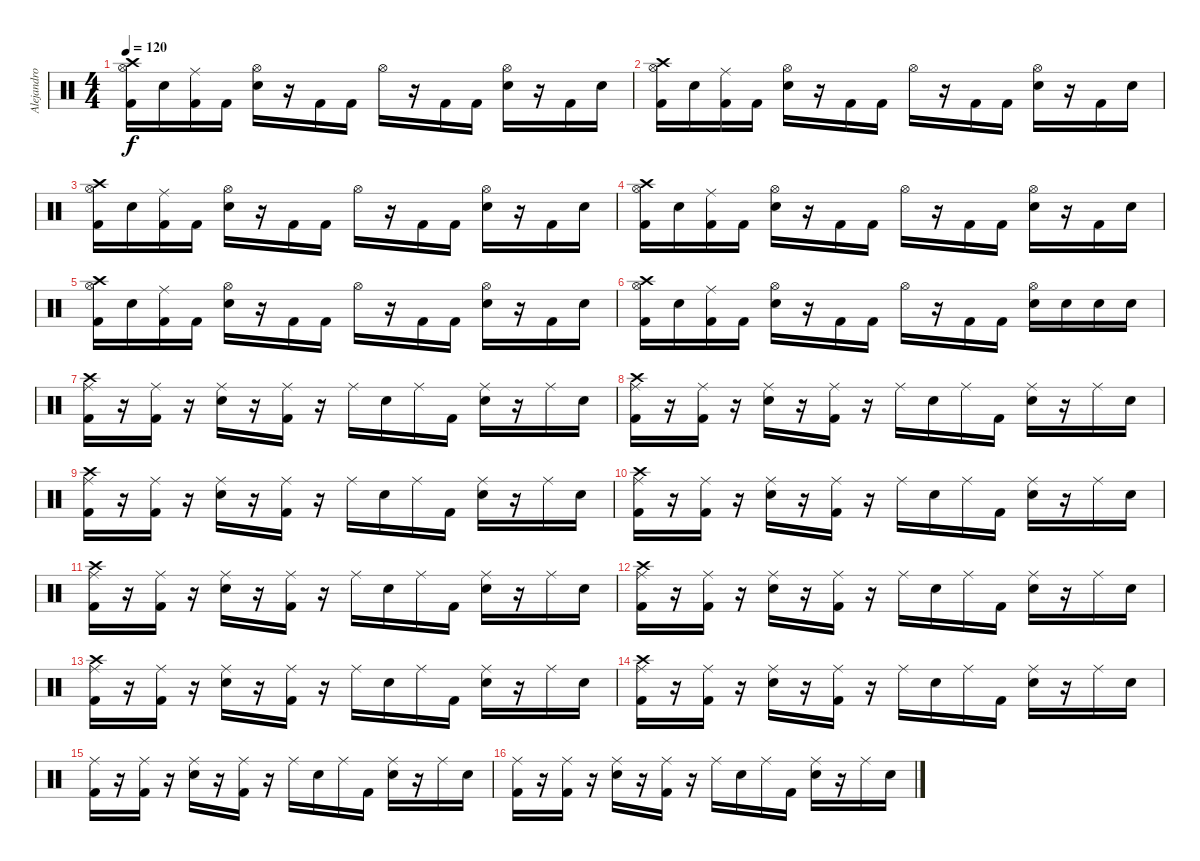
\track ("Alejandro" "Alejandro") {instrument percussion}
\staff {score}
\articulation defaults
\ts (4 4)
\tempo 120
\clef neutral
\ks c
("Crash high (hit)" "Hi-Hat (open)" "Kick (hit) 2").16{dy f} "Electric Snare (hit)".16 ("Ride (middle)" "Kick (hit) 2").16 "Kick (hit) 2".16 ("Hi-Hat (open)" "Electric Snare (hit)").16 r.16 "Kick (hit) 2".16 "Kick (hit) 2".16 "Hi-Hat (open)".16 r.16 "Kick (hit) 2".16 "Kick (hit) 2".16 ("Hi-Hat (open)" "Electric Snare (hit)").16 r.16 "Kick (hit) 2".16 "Electric Snare (hit)".16 |
("Crash high (hit)" "Hi-Hat (open)" "Kick (hit) 2").16 "Electric Snare (hit)".16 ("Ride (middle)" "Kick (hit) 2").16 "Kick (hit) 2".16 ("Hi-Hat (open)" "Electric Snare (hit)").16 r.16 "Kick (hit) 2".16 "Kick (hit) 2".16 "Hi-Hat (open)".16 r.16 "Kick (hit) 2".16 "Kick (hit) 2".16 ("Hi-Hat (open)" "Electric Snare (hit)").16 r.16 "Kick (hit) 2".16 "Electric Snare (hit)".16 |
("Crash high (hit)" "Hi-Hat (open)" "Kick (hit) 2").16 "Electric Snare (hit)".16 ("Ride (middle)" "Kick (hit) 2").16 "Kick (hit) 2".16 ("Hi-Hat (open)" "Electric Snare (hit)").16 r.16 "Kick (hit) 2".16 "Kick (hit) 2".16 "Hi-Hat (open)".16 r.16 "Kick (hit) 2".16 "Kick (hit) 2".16 ("Hi-Hat (open)" "Electric Snare (hit)").16 r.16 "Kick (hit) 2".16 "Electric Snare (hit)".16 |
("Crash high (hit)" "Hi-Hat (open)" "Kick (hit) 2").16 "Electric Snare (hit)".16 ("Ride (middle)" "Kick (hit) 2").16 "Kick (hit) 2".16 ("Hi-Hat (open)" "Electric Snare (hit)").16 r.16 "Kick (hit) 2".16 "Kick (hit) 2".16 "Hi-Hat (open)".16 r.16 "Kick (hit) 2".16 "Kick (hit) 2".16 ("Hi-Hat (open)" "Electric Snare (hit)").16 r.16 "Kick (hit) 2".16 "Electric Snare (hit)".16 |
("Crash high (hit)" "Hi-Hat (open)" "Kick (hit) 2").16 "Electric Snare (hit)".16 ("Ride (middle)" "Kick (hit) 2").16 "Kick (hit) 2".16 ("Hi-Hat (open)" "Electric Snare (hit)").16 r.16 "Kick (hit) 2".16 "Kick (hit) 2".16 "Hi-Hat (open)".16 r.16 "Kick (hit) 2".16 "Kick (hit) 2".16 ("Hi-Hat (open)" "Electric Snare (hit)").16 r.16 "Kick (hit) 2".16 "Electric Snare (hit)".16 |
("Crash high (hit)" "Hi-Hat (open)" "Kick (hit) 2").16 "Electric Snare (hit)".16 ("Ride (middle)" "Kick (hit) 2").16 "Kick (hit) 2".16 ("Hi-Hat (open)" "Electric Snare (hit)").16 r.16 "Kick (hit) 2".16 "Kick (hit) 2".16 "Hi-Hat (open)".16 r.16 "Kick (hit) 2".16 "Kick (hit) 2".16 ("Hi-Hat (open)" "Electric Snare (hit)").16 "Electric Snare (hit)".16 "Electric Snare (hit)".16 "Electric Snare (hit)".16 |
("Crash high (hit)" "Ride (middle)" "Kick (hit) 2").16 r.16 ("Ride (middle)" "Kick (hit) 2").16 r.16 ("Ride (middle)" "Electric Snare (hit)").16 r.16 ("Ride (middle)" "Kick (hit) 2").16 r.16 "Ride (middle)".16 "Electric Snare (hit)".16 "Ride (middle)".16 "Kick (hit) 2".16 ("Ride (middle)" "Electric Snare (hit)").16 r.16 "Ride (middle)".16 "Snare (hit)".16 |
("Crash high (hit)" "Ride (middle)" "Kick (hit) 2").16 r.16 ("Ride (middle)" "Kick (hit) 2").16 r.16 ("Ride (middle)" "Electric Snare (hit)").16 r.16 ("Ride (middle)" "Kick (hit) 2").16 r.16 "Ride (middle)".16 "Electric Snare (hit)".16 "Ride (middle)".16 "Kick (hit) 2".16 ("Ride (middle)" "Electric Snare (hit)").16 r.16 "Ride (middle)".16 "Snare (hit)".16 |
("Crash high (hit)" "Ride (middle)" "Kick (hit) 2").16 r.16 ("Ride (middle)" "Kick (hit) 2").16 r.16 ("Ride (middle)" "Electric Snare (hit)").16 r.16 ("Ride (middle)" "Kick (hit) 2").16 r.16 "Ride (middle)".16 "Electric Snare (hit)".16 "Ride (middle)".16 "Kick (hit) 2".16 ("Ride (middle)" "Electric Snare (hit)").16 r.16 "Ride (middle)".16 "Snare (hit)".16 |
("Crash high (hit)" "Ride (middle)" "Kick (hit) 2").16 r.16 ("Ride (middle)" "Kick (hit) 2").16 r.16 ("Ride (middle)" "Electric Snare (hit)").16 r.16 ("Ride (middle)" "Kick (hit) 2").16 r.16 "Ride (middle)".16 "Electric Snare (hit)".16 "Ride (middle)".16 "Kick (hit) 2".16 ("Ride (middle)" "Electric Snare (hit)").16 r.16 "Ride (middle)".16 "Snare (hit)".16 |
("Crash high (hit)" "Ride (middle)" "Kick (hit) 2").16 r.16 ("Ride (middle)" "Kick (hit) 2").16 r.16 ("Ride (middle)" "Electric Snare (hit)").16 r.16 ("Ride (middle)" "Kick (hit) 2").16 r.16 "Ride (middle)".16 "Electric Snare (hit)".16 "Ride (middle)".16 "Kick (hit) 2".16 ("Ride (middle)" "Electric Snare (hit)").16 r.16 "Ride (middle)".16 "Snare (hit)".16 |
("Crash high (hit)" "Ride (middle)" "Kick (hit) 2").16 r.16 ("Ride (middle)" "Kick (hit) 2").16 r.16 ("Ride (middle)" "Electric Snare (hit)").16 r.16 ("Ride (middle)" "Kick (hit) 2").16 r.16 "Ride (middle)".16 "Electric Snare (hit)".16 "Ride (middle)".16 "Kick (hit) 2".16 ("Ride (middle)" "Electric Snare (hit)").16 r.16 "Ride (middle)".16 "Snare (hit)".16 |
("Crash high (hit)" "Ride (middle)" "Kick (hit) 2").16 r.16 ("Ride (middle)" "Kick (hit) 2").16 r.16 ("Ride (middle)" "Electric Snare (hit)").16 r.16 ("Ride (middle)" "Kick (hit) 2").16 r.16 "Ride (middle)".16 "Electric Snare (hit)".16 "Ride (middle)".16 "Kick (hit) 2".16 ("Ride (middle)" "Electric Snare (hit)").16 r.16 "Ride (middle)".16 "Snare (hit)".16 |
("Crash high (hit)" "Ride (middle)" "Kick (hit) 2").16 r.16 ("Ride (middle)" "Kick (hit) 2").16 r.16 ("Ride (middle)" "Electric Snare (hit)").16 r.16 ("Ride (middle)" "Kick (hit) 2").16 r.16 "Ride (middle)".16 "Electric Snare (hit)".16 "Ride (middle)".16 "Kick (hit) 2".16 ("Ride (middle)" "Electric Snare (hit)").16 r.16 "Ride (middle)".16 "Snare (hit)".16 |
("Ride (middle)" "Kick (hit) 2").16 r.16 ("Ride (middle)" "Kick (hit) 2").16 r.16 ("Ride (middle)" "Electric Snare (hit)").16 r.16 ("Ride (middle)" "Kick (hit) 2").16 r.16 "Ride (middle)".16 "Electric Snare (hit)".16 "Ride (middle)".16 "Kick (hit) 2".16 ("Ride (middle)" "Electric Snare (hit)").16 r.16 "Ride (middle)".16 "Snare (hit)".16 |
("Ride (middle)" "Kick (hit) 2").16 r.16 ("Ride (middle)" "Kick (hit) 2").16 r.16 ("Ride (middle)" "Electric Snare (hit)").16 r.16 ("Ride (middle)" "Kick (hit) 2").16 r.16 "Ride (middle)".16 "Electric Snare (hit)".16 "Ride (middle)".16 "Kick (hit) 2".16 ("Ride (middle)" "Electric Snare (hit)").16 r.16 "Ride (middle)".16 "Snare (hit)".16
